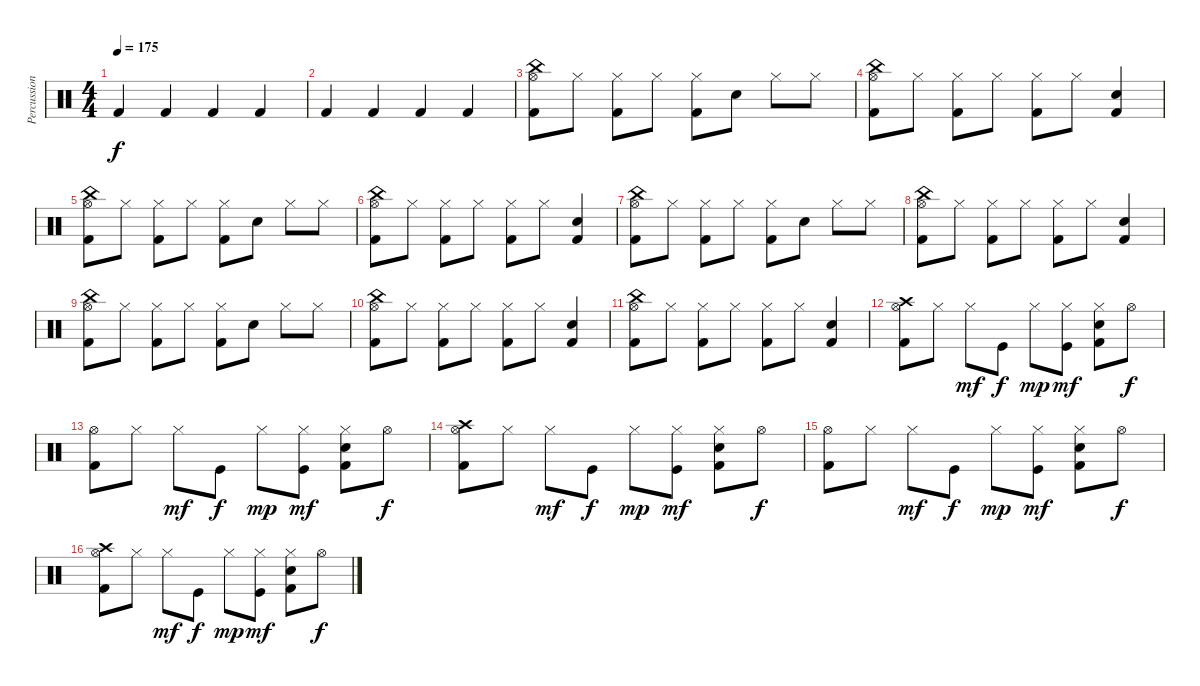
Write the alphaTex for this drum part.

\track ("Percussion" "Percussion") {instrument percussion}
\staff {score}
\articulation defaults
\ts (4 4)
\tempo 175
\clef neutral
\ks c "Kick (hit) 2".4{dy f} "Kick (hit) 2".4 "Kick (hit) 2".4 "Kick (hit) 2".4
|
"Kick (hit) 2".4 "Kick (hit) 2".4 "Kick (hit) 2".4 "Kick (hit) 2".4 |
("Kick (hit) 2" "Hi-Hat (open)" "China (hit)").8 "Hi-Hat (closed)".8 ("Kick (hit) 2" "Hi-Hat (closed)").8 "Hi-Hat (closed)".8 ("Kick (hit) 2" "Hi-Hat (closed)").8 "Snare (hit) 2".8 "Hi-Hat (closed)".8 "Hi-Hat (closed)".8 |
("Kick (hit) 2" "Hi-Hat (open)" "China (hit)").8 "Hi-Hat (closed)".8 ("Kick (hit) 2" "Hi-Hat (closed)").8 "Hi-Hat (closed)".8 ("Kick (hit) 2" "Hi-Hat (closed)").8 "Hi-Hat (closed)".8 ("Kick (hit) 2" "Snare (hit) 2").4 |
("Kick (hit) 2" "Hi-Hat (open)" "China (hit)").8 "Hi-Hat (closed)".8 ("Kick (hit) 2" "Hi-Hat (closed)").8 "Hi-Hat (closed)".8 ("Kick (hit) 2" "Hi-Hat (closed)").8 "Snare (hit) 2".8 "Hi-Hat (closed)".8 "Hi-Hat (closed)".8 |
("Kick (hit) 2" "Hi-Hat (open)" "China (hit)").8 "Hi-Hat (closed)".8 ("Kick (hit) 2" "Hi-Hat (closed)").8 "Hi-Hat (closed)".8 ("Kick (hit) 2" "Hi-Hat (closed)").8 "Hi-Hat (closed)".8 ("Kick (hit) 2" "Snare (hit) 2").4 |
("Kick (hit) 2" "Hi-Hat (open)" "China (hit)").8 "Hi-Hat (closed)".8 ("Kick (hit) 2" "Hi-Hat (closed)").8 "Hi-Hat (closed)".8 ("Kick (hit) 2" "Hi-Hat (closed)").8 "Snare (hit) 2".8 "Hi-Hat (closed)".8 "Hi-Hat (closed)".8 |
("Kick (hit) 2" "Hi-Hat (open)" "China (hit)").8 "Hi-Hat (closed)".8 ("Kick (hit) 2" "Hi-Hat (closed)").8 "Hi-Hat (closed)".8 ("Kick (hit) 2" "Hi-Hat (closed)").8 "Hi-Hat (closed)".8 ("Kick (hit) 2" "Snare (hit) 2").4 |
("Kick (hit) 2" "Hi-Hat (open)" "China (hit)").8 "Hi-Hat (closed)".8 ("Kick (hit) 2" "Hi-Hat (closed)").8 "Hi-Hat (closed)".8 ("Kick (hit) 2" "Hi-Hat (closed)").8 "Snare (hit) 2".8 "Hi-Hat (closed)".8 "Hi-Hat (closed)".8 |
("Kick (hit) 2" "Hi-Hat (open)" "China (hit)").8 "Hi-Hat (closed)".8 ("Kick (hit) 2" "Hi-Hat (closed)").8 "Hi-Hat (closed)".8 ("Kick (hit) 2" "Hi-Hat (closed)").8 "Hi-Hat (closed)".8 ("Kick (hit) 2" "Snare (hit) 2").4 |
("Kick (hit) 2" "Hi-Hat (open)" "China (hit)").8 "Hi-Hat (closed)".8 ("Kick (hit) 2" "Hi-Hat (closed)").8 "Hi-Hat (closed)".8 ("Kick (hit) 2" "Hi-Hat (closed)").8 "Hi-Hat (closed)".8 ("Kick (hit) 2" "Snare (hit) 2").4 |
("Kick (hit) 2" "Hi-Hat (open)" "Crash high (hit)").8 "Hi-Hat (closed)".8 "Hi-Hat (closed)".8{dy mf} "Kick (hit)".8{dy f} "Hi-Hat (closed)".8{dy mp} ("Kick (hit)" "Hi-Hat (closed)").8{dy mf} ("Kick (hit) 2" "Electric Snare (hit)" "Hi-Hat (closed)").8 "Hi-Hat (open)".8{dy f} |
("Kick (hit) 2" "Hi-Hat (open)").8 "Hi-Hat (closed)".8 "Hi-Hat (closed)".8{dy mf} "Kick (hit)".8{dy f} "Hi-Hat (closed)".8{dy mp} ("Kick (hit)" "Hi-Hat (closed)").8{dy mf} ("Kick (hit) 2" "Electric Snare (hit)" "Hi-Hat (closed)").8 "Hi-Hat (open)".8{dy f} |
("Kick (hit) 2" "Hi-Hat (open)" "Crash high (hit)").8 "Hi-Hat (closed)".8 "Hi-Hat (closed)".8{dy mf} "Kick (hit)".8{dy f} "Hi-Hat (closed)".8{dy mp} ("Kick (hit)" "Hi-Hat (closed)").8{dy mf} ("Kick (hit) 2" "Electric Snare (hit)" "Hi-Hat (closed)").8 "Hi-Hat (open)".8{dy f} |
("Kick (hit) 2" "Hi-Hat (open)").8 "Hi-Hat (closed)".8 "Hi-Hat (closed)".8{dy mf} "Kick (hit)".8{dy f} "Hi-Hat (closed)".8{dy mp} ("Kick (hit)" "Hi-Hat (closed)").8{dy mf} ("Kick (hit) 2" "Electric Snare (hit)" "Hi-Hat (closed)").8 "Hi-Hat (open)".8{dy f} |
("Kick (hit) 2" "Hi-Hat (open)" "Crash high (hit)").8 "Hi-Hat (closed)".8 "Hi-Hat (closed)".8{dy mf} "Kick (hit)".8{dy f} "Hi-Hat (closed)".8{dy mp} ("Kick (hit)" "Hi-Hat (closed)").8{dy mf} ("Kick (hit) 2" "Electric Snare (hit)" "Hi-Hat (closed)").8 "Hi-Hat (open)".8{dy f}
